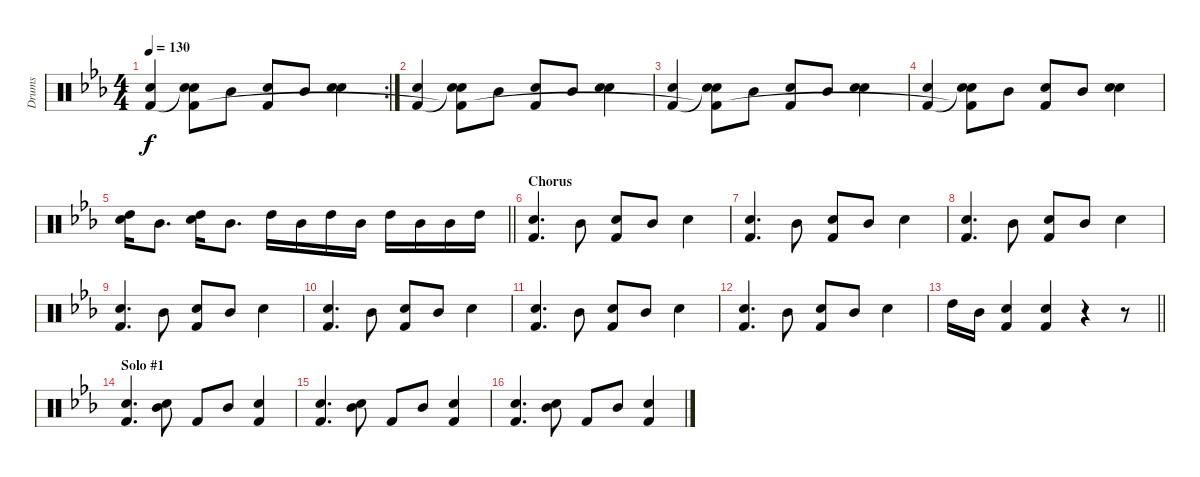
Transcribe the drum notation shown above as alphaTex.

\track ("Drums" "Drums") {instrument percussion}
\staff {score}
\articulation defaults
\rc 2
\ts (4 4)
\tempo 130
\clef neutral
\ks eb
("Electric Snare (hit)" "Kick (hit) 2").4{dy f} ("Hand Clap (hit)" "Electric Snare (hit)"{t} "Kick (hit) 2"{t}).8 "Mid Tom (hit)".8 ("Electric Snare (hit)" "Kick (hit) 2").8 "Mid Tom (hit)".8 ("Hand Clap (hit)" "Electric Snare (hit)").4 |
("Electric Snare (hit)" "Kick (hit) 2").4 ("Hand Clap (hit)" "Electric Snare (hit)"{t} "Kick (hit) 2"{t}).8 "Mid Tom (hit)".8 ("Electric Snare (hit)" "Kick (hit) 2").8 "Mid Tom (hit)".8 ("Hand Clap (hit)" "Electric Snare (hit)").4 |
("Electric Snare (hit)" "Kick (hit) 2").4 ("Hand Clap (hit)" "Electric Snare (hit)"{t} "Kick (hit) 2"{t}).8 "Mid Tom (hit)".8 ("Electric Snare (hit)" "Kick (hit) 2").8 "Mid Tom (hit)".8 ("Hand Clap (hit)" "Electric Snare (hit)").4 |
("Electric Snare (hit)" "Kick (hit) 2").4 ("Hand Clap (hit)" "Electric Snare (hit)"{t} "Kick (hit) 2"{t}).8 "Mid Tom (hit)".8 ("Electric Snare (hit)" "Kick (hit) 2").8 "Mid Tom (hit)".8 ("Hand Clap (hit)" "Electric Snare (hit)").4 |
\barLineRight lightlight
("High Tom (hit)" "Electric Snare (hit)").16 "Mid Tom (hit)".8{d} ("High Tom (hit)" "Electric Snare (hit)").16 "Mid Tom (hit)".8{d} "High Tom (hit)".16 "Mid Tom (hit)".16 "High Tom (hit)".16 "Mid Tom (hit)".16 "High Tom (hit)".16 "Mid Tom (hit)".16 "Mid Tom (hit)".16 "High Tom (hit)".16 |
\section ("" "Chorus")
("Electric Snare (hit)" "Kick (hit) 2").4{d} "Mid Tom (hit)".8 ("Electric Snare (hit)" "Kick (hit) 2").8 "Mid Tom (hit)".8 "Electric Snare (hit)".4 |
("Electric Snare (hit)" "Kick (hit) 2").4{d} "Mid Tom (hit)".8 ("Electric Snare (hit)" "Kick (hit) 2").8 "Mid Tom (hit)".8 "Electric Snare (hit)".4 |
("Electric Snare (hit)" "Kick (hit) 2").4{d} "Mid Tom (hit)".8 ("Electric Snare (hit)" "Kick (hit) 2").8 "Mid Tom (hit)".8 "Electric Snare (hit)".4 |
("Electric Snare (hit)" "Kick (hit) 2").4{d} "Mid Tom (hit)".8 ("Electric Snare (hit)" "Kick (hit) 2").8 "Mid Tom (hit)".8 "Electric Snare (hit)".4 |
("Electric Snare (hit)" "Kick (hit) 2").4{d} "Mid Tom (hit)".8 ("Electric Snare (hit)" "Kick (hit) 2").8 "Mid Tom (hit)".8 "Electric Snare (hit)".4 |
("Electric Snare (hit)" "Kick (hit) 2").4{d} "Mid Tom (hit)".8 ("Electric Snare (hit)" "Kick (hit) 2").8 "Mid Tom (hit)".8 "Electric Snare (hit)".4 |
("Electric Snare (hit)" "Kick (hit) 2").4{d} "Mid Tom (hit)".8 ("Electric Snare (hit)" "Kick (hit) 2").8 "Mid Tom (hit)".8 "Electric Snare (hit)".4 |
\barLineRight lightlight "High Tom (hit)".16 "Mid Tom (hit)".16
("Kick (hit) 2" "Electric Snare (hit)").4 ("Kick (hit) 2" "Electric Snare (hit)").4 r.4 r.8 |
\section ("" "Solo #1")
("Electric Snare (hit)" "Kick (hit) 2").4{d} ("Mid Tom (hit)" "Electric Snare (hit)").8 "Kick (hit) 2".8 "Mid Tom (hit)".8 ("Electric Snare (hit)" "Kick (hit) 2").4 |
("Electric Snare (hit)" "Kick (hit) 2").4{d} ("Mid Tom (hit)" "Electric Snare (hit)").8 "Kick (hit) 2".8 "Mid Tom (hit)".8 ("Electric Snare (hit)" "Kick (hit) 2").4 |
("Electric Snare (hit)" "Kick (hit) 2").4{d} ("Mid Tom (hit)" "Electric Snare (hit)").8 "Kick (hit) 2".8 "Mid Tom (hit)".8 ("Electric Snare (hit)" "Kick (hit) 2").4
